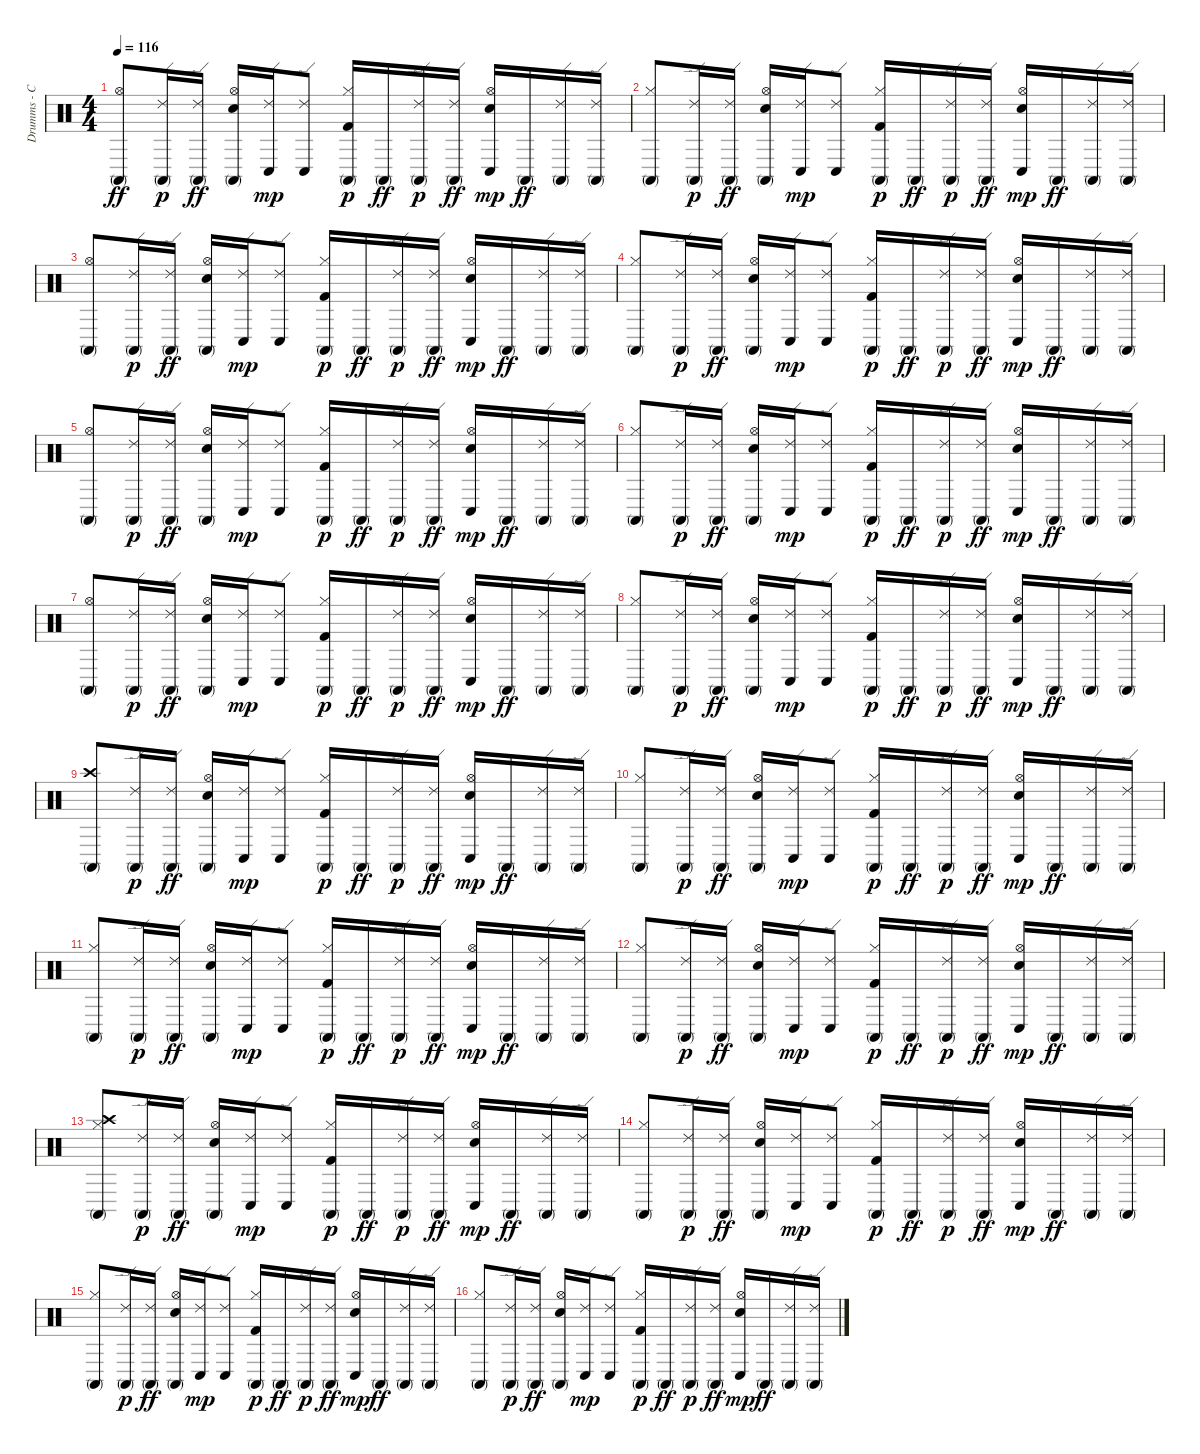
\track ("Drumms - Conga" "Drumms - C") {instrument percussion}
\staff {score}
\articulation defaults
\ts (4 4)
\section ("" "")
\tempo 116
\clef neutral
\ks c
("Conga high (mute)" "Hi-Hat (open)").8{dy ff} ("Conga high (mute)" "Ride (edge) 2").16{dy p} ("Conga high (mute)" "Ride (edge) 2").16{dy ff} ("Conga high (mute)" "Snare (hit) 2" "Hi-Hat (open)").16 ("Conga low (hit)" "Ride (edge) 2").16{dy mp} ("Conga low (hit)" "Ride (edge) 2").8 ("Conga high (mute)" "Kick (hit) 2" "Hi-Hat (closed)").16{dy p} "Conga high (mute)".16{dy ff} ("Conga high (mute)" "Ride (edge) 2").16{dy p} ("Conga high (mute)" "Ride (edge) 2").16{dy ff} ("Conga low (hit)" "Snare (hit) 2" "Hi-Hat (open)").16{dy mp} "Conga high (mute)".16{dy ff} ("Conga high (mute)" "Ride (edge) 2").16 ("Conga high (mute)" "Ride (edge) 2").16 |
("Conga high (mute)" "Hi-Hat (closed)").8 ("Conga high (mute)" "Ride (edge) 2").16{dy p} ("Conga high (mute)" "Ride (edge) 2").16{dy ff} ("Conga high (mute)" "Snare (hit) 2" "Hi-Hat (open)").16 ("Conga low (hit)" "Ride (edge) 2").16{dy mp} ("Conga low (hit)" "Ride (edge) 2").8 ("Conga high (mute)" "Kick (hit) 2" "Hi-Hat (closed)").16{dy p} "Conga high (mute)".16{dy ff} ("Conga high (mute)" "Ride (edge) 2").16{dy p} ("Conga high (mute)" "Ride (edge) 2").16{dy ff} ("Conga low (hit)" "Snare (hit) 2" "Hi-Hat (open)").16{dy mp} "Conga high (mute)".16{dy ff} ("Conga high (mute)" "Ride (edge) 2").16 ("Conga high (mute)" "Ride (edge) 2").16 |
("Conga high (mute)" "Hi-Hat (open)").8 ("Conga high (mute)" "Ride (edge) 2").16{dy p} ("Conga high (mute)" "Ride (edge) 2").16{dy ff} ("Conga high (mute)" "Snare (hit) 2" "Hi-Hat (open)").16 ("Conga low (hit)" "Ride (edge) 2").16{dy mp} ("Conga low (hit)" "Ride (edge) 2").8 ("Conga high (mute)" "Kick (hit) 2" "Hi-Hat (closed)").16{dy p} "Conga high (mute)".16{dy ff} ("Conga high (mute)" "Ride (edge) 2").16{dy p} ("Conga high (mute)" "Ride (edge) 2").16{dy ff} ("Conga low (hit)" "Snare (hit) 2" "Hi-Hat (open)").16{dy mp} "Conga high (mute)".16{dy ff} ("Conga high (mute)" "Ride (edge) 2").16 ("Conga high (mute)" "Ride (edge) 2").16 |
("Conga high (mute)" "Hi-Hat (closed)").8 ("Conga high (mute)" "Ride (edge) 2").16{dy p} ("Conga high (mute)" "Ride (edge) 2").16{dy ff} ("Conga high (mute)" "Snare (hit) 2" "Hi-Hat (open)").16 ("Conga low (hit)" "Ride (edge) 2").16{dy mp} ("Conga low (hit)" "Ride (edge) 2").8 ("Conga high (mute)" "Kick (hit) 2" "Hi-Hat (closed)").16{dy p} "Conga high (mute)".16{dy ff} ("Conga high (mute)" "Ride (edge) 2").16{dy p} ("Conga high (mute)" "Ride (edge) 2").16{dy ff} ("Conga low (hit)" "Snare (hit) 2" "Hi-Hat (open)").16{dy mp} "Conga high (mute)".16{dy ff} ("Conga high (mute)" "Ride (edge) 2").16 ("Conga high (mute)" "Ride (edge) 2").16 |
("Conga high (mute)" "Hi-Hat (open)").8 ("Conga high (mute)" "Ride (edge) 2").16{dy p} ("Conga high (mute)" "Ride (edge) 2").16{dy ff} ("Conga high (mute)" "Snare (hit) 2" "Hi-Hat (open)").16 ("Conga low (hit)" "Ride (edge) 2").16{dy mp} ("Conga low (hit)" "Ride (edge) 2").8 ("Conga high (mute)" "Kick (hit) 2" "Hi-Hat (closed)").16{dy p} "Conga high (mute)".16{dy ff} ("Conga high (mute)" "Ride (edge) 2").16{dy p} ("Conga high (mute)" "Ride (edge) 2").16{dy ff} ("Conga low (hit)" "Snare (hit) 2" "Hi-Hat (open)").16{dy mp} "Conga high (mute)".16{dy ff} ("Conga high (mute)" "Ride (edge) 2").16 ("Conga high (mute)" "Ride (edge) 2").16 |
("Conga high (mute)" "Hi-Hat (closed)").8 ("Conga high (mute)" "Ride (edge) 2").16{dy p} ("Conga high (mute)" "Ride (edge) 2").16{dy ff} ("Conga high (mute)" "Snare (hit) 2" "Hi-Hat (open)").16 ("Conga low (hit)" "Ride (edge) 2").16{dy mp} ("Conga low (hit)" "Ride (edge) 2").8 ("Conga high (mute)" "Kick (hit) 2" "Hi-Hat (closed)").16{dy p} "Conga high (mute)".16{dy ff} ("Conga high (mute)" "Ride (edge) 2").16{dy p} ("Conga high (mute)" "Ride (edge) 2").16{dy ff} ("Conga low (hit)" "Snare (hit) 2" "Hi-Hat (open)").16{dy mp} "Conga high (mute)".16{dy ff} ("Conga high (mute)" "Ride (edge) 2").16 ("Conga high (mute)" "Ride (edge) 2").16 |
("Conga high (mute)" "Hi-Hat (open)").8 ("Conga high (mute)" "Ride (edge) 2").16{dy p} ("Conga high (mute)" "Ride (edge) 2").16{dy ff} ("Conga high (mute)" "Snare (hit) 2" "Hi-Hat (open)").16 ("Conga low (hit)" "Ride (edge) 2").16{dy mp} ("Conga low (hit)" "Ride (edge) 2").8 ("Conga high (mute)" "Kick (hit) 2" "Hi-Hat (closed)").16{dy p} "Conga high (mute)".16{dy ff} ("Conga high (mute)" "Ride (edge) 2").16{dy p} ("Conga high (mute)" "Ride (edge) 2").16{dy ff} ("Conga low (hit)" "Snare (hit) 2" "Hi-Hat (open)").16{dy mp} "Conga high (mute)".16{dy ff} ("Conga high (mute)" "Ride (edge) 2").16 ("Conga high (mute)" "Ride (edge) 2").16 |
("Conga high (mute)" "Hi-Hat (closed)").8 ("Conga high (mute)" "Ride (edge) 2").16{dy p} ("Conga high (mute)" "Ride (edge) 2").16{dy ff} ("Conga high (mute)" "Snare (hit) 2" "Hi-Hat (open)").16 ("Conga low (hit)" "Ride (edge) 2").16{dy mp} ("Conga low (hit)" "Ride (edge) 2").8 ("Conga high (mute)" "Kick (hit) 2" "Hi-Hat (closed)").16{dy p} "Conga high (mute)".16{dy ff} ("Conga high (mute)" "Ride (edge) 2").16{dy p} ("Conga high (mute)" "Ride (edge) 2").16{dy ff} ("Conga low (hit)" "Snare (hit) 2" "Hi-Hat (open)").16{dy mp} "Conga high (mute)".16{dy ff} ("Conga high (mute)" "Ride (edge) 2").16 ("Conga high (mute)" "Ride (edge) 2").16 |
\section ("" "")
("Conga high (mute)" "Crash high (hit)").8 ("Conga high (mute)" "Ride (edge) 2").16{dy p} ("Conga high (mute)" "Ride (edge) 2").16{dy ff} ("Conga high (mute)" "Snare (hit) 2" "Hi-Hat (open)").16 ("Conga low (hit)" "Ride (edge) 2").16{dy mp} ("Conga low (hit)" "Ride (edge) 2").8 ("Conga high (mute)" "Kick (hit) 2" "Hi-Hat (closed)").16{dy p} "Conga high (mute)".16{dy ff} ("Conga high (mute)" "Ride (edge) 2").16{dy p} ("Conga high (mute)" "Ride (edge) 2").16{dy ff} ("Conga low (hit)" "Snare (hit) 2" "Hi-Hat (open)").16{dy mp} "Conga high (mute)".16{dy ff} ("Conga high (mute)" "Ride (edge) 2").16 ("Conga high (mute)" "Ride (edge) 2").16 |
("Conga high (mute)" "Hi-Hat (closed)").8 ("Conga high (mute)" "Ride (edge) 2").16{dy p} ("Conga high (mute)" "Ride (edge) 2").16{dy ff} ("Conga high (mute)" "Snare (hit) 2" "Hi-Hat (open)").16 ("Conga low (hit)" "Ride (edge) 2").16{dy mp} ("Conga low (hit)" "Ride (edge) 2").8 ("Conga high (mute)" "Kick (hit) 2" "Hi-Hat (closed)").16{dy p} "Conga high (mute)".16{dy ff} ("Conga high (mute)" "Ride (edge) 2").16{dy p} ("Conga high (mute)" "Ride (edge) 2").16{dy ff} ("Conga low (hit)" "Snare (hit) 2" "Hi-Hat (open)").16{dy mp} "Conga high (mute)".16{dy ff} ("Conga high (mute)" "Ride (edge) 2").16 ("Conga high (mute)" "Ride (edge) 2").16 |
("Conga high (mute)" "Hi-Hat (closed)").8 ("Conga high (mute)" "Ride (edge) 2").16{dy p} ("Conga high (mute)" "Ride (edge) 2").16{dy ff} ("Conga high (mute)" "Snare (hit) 2" "Hi-Hat (open)").16 ("Conga low (hit)" "Ride (edge) 2").16{dy mp} ("Conga low (hit)" "Ride (edge) 2").8 ("Conga high (mute)" "Kick (hit) 2" "Hi-Hat (closed)").16{dy p} "Conga high (mute)".16{dy ff} ("Conga high (mute)" "Ride (edge) 2").16{dy p} ("Conga high (mute)" "Ride (edge) 2").16{dy ff} ("Conga low (hit)" "Snare (hit) 2" "Hi-Hat (open)").16{dy mp} "Conga high (mute)".16{dy ff} ("Conga high (mute)" "Ride (edge) 2").16 ("Conga high (mute)" "Ride (edge) 2").16 |
("Conga high (mute)" "Hi-Hat (closed)").8 ("Conga high (mute)" "Ride (edge) 2").16{dy p} ("Conga high (mute)" "Ride (edge) 2").16{dy ff} ("Conga high (mute)" "Snare (hit) 2" "Hi-Hat (open)").16 ("Conga low (hit)" "Ride (edge) 2").16{dy mp} ("Conga low (hit)" "Ride (edge) 2").8 ("Conga high (mute)" "Kick (hit) 2" "Hi-Hat (closed)").16{dy p} "Conga high (mute)".16{dy ff} ("Conga high (mute)" "Ride (edge) 2").16{dy p} ("Conga high (mute)" "Ride (edge) 2").16{dy ff} ("Conga low (hit)" "Snare (hit) 2" "Hi-Hat (open)").16{dy mp} "Conga high (mute)".16{dy ff} ("Conga high (mute)" "Ride (edge) 2").16 ("Conga high (mute)" "Ride (edge) 2").16 |
\section ("" "")
("Conga high (mute)" "Crash high (hit)" "Hi-Hat (closed)").8 ("Conga high (mute)" "Ride (edge) 2").16{dy p} ("Conga high (mute)" "Ride (edge) 2").16{dy ff} ("Conga high (mute)" "Snare (hit) 2" "Hi-Hat (open)").16 ("Conga low (hit)" "Ride (edge) 2").16{dy mp} ("Conga low (hit)" "Ride (edge) 2").8 ("Conga high (mute)" "Kick (hit) 2" "Hi-Hat (closed)").16{dy p} "Conga high (mute)".16{dy ff} ("Conga high (mute)" "Ride (edge) 2").16{dy p} ("Conga high (mute)" "Ride (edge) 2").16{dy ff} ("Conga low (hit)" "Snare (hit) 2" "Hi-Hat (open)").16{dy mp} "Conga high (mute)".16{dy ff} ("Conga high (mute)" "Ride (edge) 2").16 ("Conga high (mute)" "Ride (edge) 2").16 |
("Conga high (mute)" "Hi-Hat (closed)").8 ("Conga high (mute)" "Ride (edge) 2").16{dy p} ("Conga high (mute)" "Ride (edge) 2").16{dy ff} ("Conga high (mute)" "Snare (hit) 2" "Hi-Hat (open)").16 ("Conga low (hit)" "Ride (edge) 2").16{dy mp} ("Conga low (hit)" "Ride (edge) 2").8 ("Conga high (mute)" "Kick (hit) 2" "Hi-Hat (closed)").16{dy p} "Conga high (mute)".16{dy ff} ("Conga high (mute)" "Ride (edge) 2").16{dy p} ("Conga high (mute)" "Ride (edge) 2").16{dy ff} ("Conga low (hit)" "Snare (hit) 2" "Hi-Hat (open)").16{dy mp} "Conga high (mute)".16{dy ff} ("Conga high (mute)" "Ride (edge) 2").16 ("Conga high (mute)" "Ride (edge) 2").16 |
("Conga high (mute)" "Hi-Hat (closed)").8 ("Conga high (mute)" "Ride (edge) 2").16{dy p} ("Conga high (mute)" "Ride (edge) 2").16{dy ff} ("Conga high (mute)" "Snare (hit) 2" "Hi-Hat (open)").16 ("Conga low (hit)" "Ride (edge) 2").16{dy mp} ("Conga low (hit)" "Ride (edge) 2").8 ("Conga high (mute)" "Kick (hit) 2" "Hi-Hat (closed)").16{dy p} "Conga high (mute)".16{dy ff} ("Conga high (mute)" "Ride (edge) 2").16{dy p} ("Conga high (mute)" "Ride (edge) 2").16{dy ff} ("Conga low (hit)" "Snare (hit) 2" "Hi-Hat (open)").16{dy mp} "Conga high (mute)".16{dy ff} ("Conga high (mute)" "Ride (edge) 2").16 ("Conga high (mute)" "Ride (edge) 2").16 |
("Conga high (mute)" "Hi-Hat (closed)").8 ("Conga high (mute)" "Ride (edge) 2").16{dy p} ("Conga high (mute)" "Ride (edge) 2").16{dy ff} ("Conga high (mute)" "Snare (hit) 2" "Hi-Hat (open)").16 ("Conga low (hit)" "Ride (edge) 2").16{dy mp} ("Conga low (hit)" "Ride (edge) 2").8 ("Conga high (mute)" "Kick (hit) 2" "Hi-Hat (closed)").16{dy p} "Conga high (mute)".16{dy ff} ("Conga high (mute)" "Ride (edge) 2").16{dy p} ("Conga high (mute)" "Ride (edge) 2").16{dy ff} ("Conga low (hit)" "Snare (hit) 2" "Hi-Hat (open)").16{dy mp} "Conga high (mute)".16{dy ff} ("Conga high (mute)" "Ride (edge) 2").16 ("Conga high (mute)" "Ride (edge) 2").16
